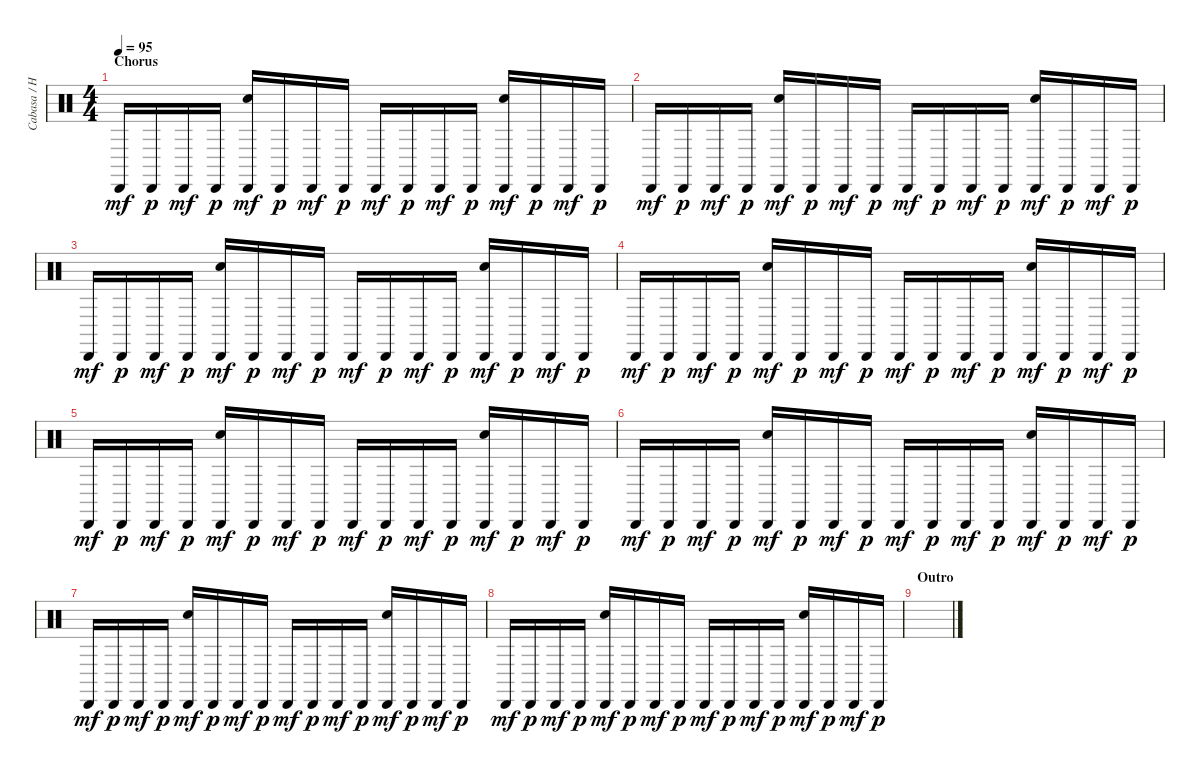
\track ("Cabasa / Hand Clap" "Cabasa / H") {instrument percussion}
\staff {score}
\articulation defaults
\ts (4 4)
\section ("" "Chorus")
\tempo 95
\clef neutral
\ks aminor "Cabasa (hit)".16{dy mf} "Cabasa (hit)".16{dy p} "Cabasa (hit)".16{dy mf} "Cabasa (hit)".16{dy p}
("Hand Clap (hit)" "Cabasa (hit)").16{dy mf} "Cabasa (hit)".16{dy p} "Cabasa (hit)".16{dy mf} "Cabasa (hit)".16{dy p} "Cabasa (hit)".16{dy mf} "Cabasa (hit)".16{dy p} "Cabasa (hit)".16{dy mf} "Cabasa (hit)".16{dy p} ("Hand Clap (hit)" "Cabasa (hit)").16{dy mf} "Cabasa (hit)".16{dy p} "Cabasa (hit)".16{dy mf} "Cabasa (hit)".16{dy p} |
"Cabasa (hit)".16{dy mf} "Cabasa (hit)".16{dy p} "Cabasa (hit)".16{dy mf} "Cabasa (hit)".16{dy p} ("Hand Clap (hit)" "Cabasa (hit)").16{dy mf} "Cabasa (hit)".16{dy p} "Cabasa (hit)".16{dy mf} "Cabasa (hit)".16{dy p} "Cabasa (hit)".16{dy mf} "Cabasa (hit)".16{dy p} "Cabasa (hit)".16{dy mf} "Cabasa (hit)".16{dy p} ("Hand Clap (hit)" "Cabasa (hit)").16{dy mf} "Cabasa (hit)".16{dy p} "Cabasa (hit)".16{dy mf} "Cabasa (hit)".16{dy p} |
"Cabasa (hit)".16{dy mf} "Cabasa (hit)".16{dy p} "Cabasa (hit)".16{dy mf} "Cabasa (hit)".16{dy p} ("Hand Clap (hit)" "Cabasa (hit)").16{dy mf} "Cabasa (hit)".16{dy p} "Cabasa (hit)".16{dy mf} "Cabasa (hit)".16{dy p} "Cabasa (hit)".16{dy mf} "Cabasa (hit)".16{dy p} "Cabasa (hit)".16{dy mf} "Cabasa (hit)".16{dy p} ("Hand Clap (hit)" "Cabasa (hit)").16{dy mf} "Cabasa (hit)".16{dy p} "Cabasa (hit)".16{dy mf} "Cabasa (hit)".16{dy p} |
"Cabasa (hit)".16{dy mf} "Cabasa (hit)".16{dy p} "Cabasa (hit)".16{dy mf} "Cabasa (hit)".16{dy p} ("Hand Clap (hit)" "Cabasa (hit)").16{dy mf} "Cabasa (hit)".16{dy p} "Cabasa (hit)".16{dy mf} "Cabasa (hit)".16{dy p} "Cabasa (hit)".16{dy mf} "Cabasa (hit)".16{dy p} "Cabasa (hit)".16{dy mf} "Cabasa (hit)".16{dy p} ("Hand Clap (hit)" "Cabasa (hit)").16{dy mf} "Cabasa (hit)".16{dy p} "Cabasa (hit)".16{dy mf} "Cabasa (hit)".16{dy p} |
"Cabasa (hit)".16{dy mf} "Cabasa (hit)".16{dy p} "Cabasa (hit)".16{dy mf} "Cabasa (hit)".16{dy p} ("Hand Clap (hit)" "Cabasa (hit)").16{dy mf} "Cabasa (hit)".16{dy p} "Cabasa (hit)".16{dy mf} "Cabasa (hit)".16{dy p} "Cabasa (hit)".16{dy mf} "Cabasa (hit)".16{dy p} "Cabasa (hit)".16{dy mf} "Cabasa (hit)".16{dy p} ("Hand Clap (hit)" "Cabasa (hit)").16{dy mf} "Cabasa (hit)".16{dy p} "Cabasa (hit)".16{dy mf} "Cabasa (hit)".16{dy p} |
"Cabasa (hit)".16{dy mf} "Cabasa (hit)".16{dy p} "Cabasa (hit)".16{dy mf} "Cabasa (hit)".16{dy p} ("Hand Clap (hit)" "Cabasa (hit)").16{dy mf} "Cabasa (hit)".16{dy p} "Cabasa (hit)".16{dy mf} "Cabasa (hit)".16{dy p} "Cabasa (hit)".16{dy mf} "Cabasa (hit)".16{dy p} "Cabasa (hit)".16{dy mf} "Cabasa (hit)".16{dy p} ("Hand Clap (hit)" "Cabasa (hit)").16{dy mf} "Cabasa (hit)".16{dy p} "Cabasa (hit)".16{dy mf} "Cabasa (hit)".16{dy p} |
"Cabasa (hit)".16{dy mf} "Cabasa (hit)".16{dy p} "Cabasa (hit)".16{dy mf} "Cabasa (hit)".16{dy p} ("Hand Clap (hit)" "Cabasa (hit)").16{dy mf} "Cabasa (hit)".16{dy p} "Cabasa (hit)".16{dy mf} "Cabasa (hit)".16{dy p} "Cabasa (hit)".16{dy mf} "Cabasa (hit)".16{dy p} "Cabasa (hit)".16{dy mf} "Cabasa (hit)".16{dy p} ("Hand Clap (hit)" "Cabasa (hit)").16{dy mf} "Cabasa (hit)".16{dy p} "Cabasa (hit)".16{dy mf} "Cabasa (hit)".16{dy p} |
"Cabasa (hit)".16{dy mf} "Cabasa (hit)".16{dy p} "Cabasa (hit)".16{dy mf} "Cabasa (hit)".16{dy p} ("Hand Clap (hit)" "Cabasa (hit)").16{dy mf} "Cabasa (hit)".16{dy p} "Cabasa (hit)".16{dy mf} "Cabasa (hit)".16{dy p} "Cabasa (hit)".16{dy mf} "Cabasa (hit)".16{dy p} "Cabasa (hit)".16{dy mf} "Cabasa (hit)".16{dy p} ("Hand Clap (hit)" "Cabasa (hit)").16{dy mf} "Cabasa (hit)".16{dy p} "Cabasa (hit)".16{dy mf} "Cabasa (hit)".16{dy p} |
\section ("" "Outro")
